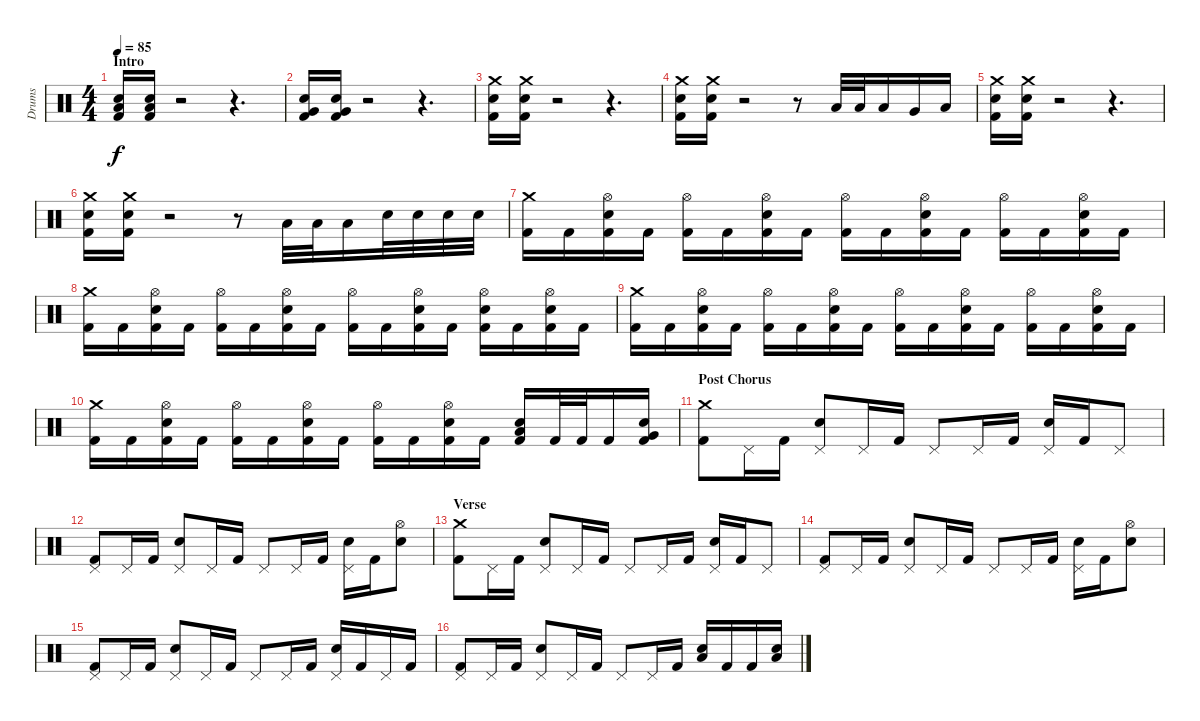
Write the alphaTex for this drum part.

\track ("Drums" "Drums") {instrument percussion}
\staff {score}
\articulation defaults
\ts (4 4)
\section ("" "Intro")
\tempo 85
\clef neutral
\ks c
("Electric Snare (hit)" "Low Tom (hit)" "Kick (hit) 2").16{dy f} ("Electric Snare (hit)" "Low Tom (hit)" "Kick (hit) 2").16 r.2 r.4{d} |
("Electric Snare (hit)" "Very Low Tom (hit)" "Kick (hit) 2").16 ("Electric Snare (hit)" "Very Low Tom (hit)" "Kick (hit) 2").16 r.2 r.4{d} |
("Crash medium (hit)" "Electric Snare (hit)" "Kick (hit) 2").16 ("Crash medium (hit)" "Electric Snare (hit)" "Kick (hit) 2").16 r.2 r.4{d} |
("Crash medium (hit)" "Electric Snare (hit)" "Kick (hit) 2").16 ("Crash medium (hit)" "Electric Snare (hit)" "Kick (hit) 2").16 r.2 r.8 "Low Tom (hit)".32 "Low Tom (hit)".32 "Low Tom (hit)".16 "Very Low Tom (hit)".16 "Low Floor Tom (hit)".16 |
("Crash medium (hit)" "Electric Snare (hit)" "Kick (hit) 2").16 ("Crash medium (hit)" "Electric Snare (hit)" "Kick (hit) 2").16 r.2 r.4{d} |
("Crash medium (hit)" "Electric Snare (hit)" "Kick (hit) 2").16 ("Crash medium (hit)" "Electric Snare (hit)" "Kick (hit) 2").16 r.2 r.8 "Low Tom (hit)".32 "Low Tom (hit)".32 "Low Tom (hit)".16 "Electric Snare (hit)".32 "Electric Snare (hit)".32 "Electric Snare (hit)".32 "Electric Snare (hit)".32 |
("Crash medium (hit)" "Kick (hit) 2").16 "Kick (hit) 2".16 ("Hi-Hat (open)" "Electric Snare (hit)" "Kick (hit) 2").16 "Kick (hit) 2".16 ("Hi-Hat (open)" "Kick (hit) 2").16 "Kick (hit) 2".16 ("Hi-Hat (open)" "Electric Snare (hit)" "Kick (hit) 2").16 "Kick (hit) 2".16 ("Hi-Hat (open)" "Kick (hit) 2").16 "Kick (hit) 2".16 ("Hi-Hat (open)" "Electric Snare (hit)" "Kick (hit) 2").16 "Kick (hit) 2".16 ("Hi-Hat (open)" "Kick (hit) 2").16 "Kick (hit) 2".16 ("Hi-Hat (open)" "Electric Snare (hit)" "Kick (hit) 2").16 "Kick (hit) 2".16 |
("Crash medium (hit)" "Kick (hit) 2").16 "Kick (hit) 2".16 ("Hi-Hat (open)" "Electric Snare (hit)" "Kick (hit) 2").16 "Kick (hit) 2".16 ("Hi-Hat (open)" "Kick (hit) 2").16 "Kick (hit) 2".16 ("Hi-Hat (open)" "Electric Snare (hit)" "Kick (hit) 2").16 "Kick (hit) 2".16 ("Hi-Hat (open)" "Kick (hit) 2").16 "Kick (hit) 2".16 ("Hi-Hat (open)" "Electric Snare (hit)" "Kick (hit) 2").16 "Kick (hit) 2".16 ("Hi-Hat (open)" "Electric Snare (hit)" "Kick (hit) 2").16 "Kick (hit) 2".16 ("Hi-Hat (open)" "Electric Snare (hit)" "Kick (hit) 2").16 "Kick (hit) 2".16 |
("Crash medium (hit)" "Kick (hit) 2").16 "Kick (hit) 2".16 ("Hi-Hat (open)" "Electric Snare (hit)" "Kick (hit) 2").16 "Kick (hit) 2".16 ("Hi-Hat (open)" "Kick (hit) 2").16 "Kick (hit) 2".16 ("Hi-Hat (open)" "Electric Snare (hit)" "Kick (hit) 2").16 "Kick (hit) 2".16 ("Hi-Hat (open)" "Kick (hit) 2").16 "Kick (hit) 2".16 ("Hi-Hat (open)" "Electric Snare (hit)" "Kick (hit) 2").16 "Kick (hit) 2".16 ("Hi-Hat (open)" "Kick (hit) 2").16 "Kick (hit) 2".16 ("Hi-Hat (open)" "Electric Snare (hit)" "Kick (hit) 2").16 "Kick (hit) 2".16 |
("Crash medium (hit)" "Kick (hit) 2").16 "Kick (hit) 2".16 ("Hi-Hat (open)" "Electric Snare (hit)" "Kick (hit) 2").16 "Kick (hit) 2".16 ("Hi-Hat (open)" "Kick (hit) 2").16 "Kick (hit) 2".16 ("Hi-Hat (open)" "Electric Snare (hit)" "Kick (hit) 2").16 "Kick (hit) 2".16 ("Hi-Hat (open)" "Kick (hit) 2").16 "Kick (hit) 2".16 ("Hi-Hat (open)" "Electric Snare (hit)" "Kick (hit) 2").16 "Kick (hit) 2".16 ("Electric Snare (hit)" "Low Tom (hit)" "Kick (hit) 2").16 "Kick (hit) 2".32 "Kick (hit) 2".32 "Kick (hit) 2".16 ("Electric Snare (hit)" "Very Low Tom (hit)" "Kick (hit) 2").16 |
\section ("" "Post Chorus")
("Crash medium (hit)" "Kick (hit) 2").8 "Pedal Hi-Hat (hit)".16 "Kick (hit) 2".16 ("Pedal Hi-Hat (hit)" "Electric Snare (hit)").8 "Pedal Hi-Hat (hit)".16 "Kick (hit) 2".16 "Pedal Hi-Hat (hit)".8 "Pedal Hi-Hat (hit)".16 "Kick (hit) 2".16 ("Pedal Hi-Hat (hit)" "Electric Snare (hit)").16 "Kick (hit) 2".16 "Pedal Hi-Hat (hit)".8 |
("Pedal Hi-Hat (hit)" "Kick (hit) 2").8 "Pedal Hi-Hat (hit)".16 "Kick (hit) 2".16 ("Pedal Hi-Hat (hit)" "Electric Snare (hit)").8 "Pedal Hi-Hat (hit)".16 "Kick (hit) 2".16 "Pedal Hi-Hat (hit)".8 "Pedal Hi-Hat (hit)".16 "Kick (hit) 2".16 ("Pedal Hi-Hat (hit)" "Electric Snare (hit)").16 "Kick (hit) 2".16 ("Hi-Hat (open)" "Electric Snare (hit)").8 |
\section ("" "Verse")
("Crash medium (hit)" "Kick (hit) 2").8 "Pedal Hi-Hat (hit)".16 "Kick (hit) 2".16 ("Pedal Hi-Hat (hit)" "Electric Snare (hit)").8 "Pedal Hi-Hat (hit)".16 "Kick (hit) 2".16 "Pedal Hi-Hat (hit)".8 "Pedal Hi-Hat (hit)".16 "Kick (hit) 2".16 ("Pedal Hi-Hat (hit)" "Electric Snare (hit)").16 "Kick (hit) 2".16 "Pedal Hi-Hat (hit)".8 |
("Pedal Hi-Hat (hit)" "Kick (hit) 2").8 "Pedal Hi-Hat (hit)".16 "Kick (hit) 2".16 ("Pedal Hi-Hat (hit)" "Electric Snare (hit)").8 "Pedal Hi-Hat (hit)".16 "Kick (hit) 2".16 "Pedal Hi-Hat (hit)".8 "Pedal Hi-Hat (hit)".16 "Kick (hit) 2".16 ("Pedal Hi-Hat (hit)" "Electric Snare (hit)").16 "Kick (hit) 2".16 ("Hi-Hat (open)" "Electric Snare (hit)").8 |
("Pedal Hi-Hat (hit)" "Kick (hit) 2").8 "Pedal Hi-Hat (hit)".16 "Kick (hit) 2".16 ("Pedal Hi-Hat (hit)" "Electric Snare (hit)").8 "Pedal Hi-Hat (hit)".16 "Kick (hit) 2".16 "Pedal Hi-Hat (hit)".8 "Pedal Hi-Hat (hit)".16 "Kick (hit) 2".16 ("Pedal Hi-Hat (hit)" "Electric Snare (hit)").16 "Kick (hit) 2".16 "Pedal Hi-Hat (hit)".16 "Kick (hit) 2".16 |
("Pedal Hi-Hat (hit)" "Kick (hit) 2").8 "Pedal Hi-Hat (hit)".16 "Kick (hit) 2".16 ("Pedal Hi-Hat (hit)" "Electric Snare (hit)").8 "Pedal Hi-Hat (hit)".16 "Kick (hit) 2".16 "Pedal Hi-Hat (hit)".8 "Pedal Hi-Hat (hit)".16 "Kick (hit) 2".16 ("Electric Snare (hit)" "Low Tom (hit)").16 "Kick (hit) 2".16 "Kick (hit) 2".16 ("Electric Snare (hit)" "Low Tom (hit)").16
